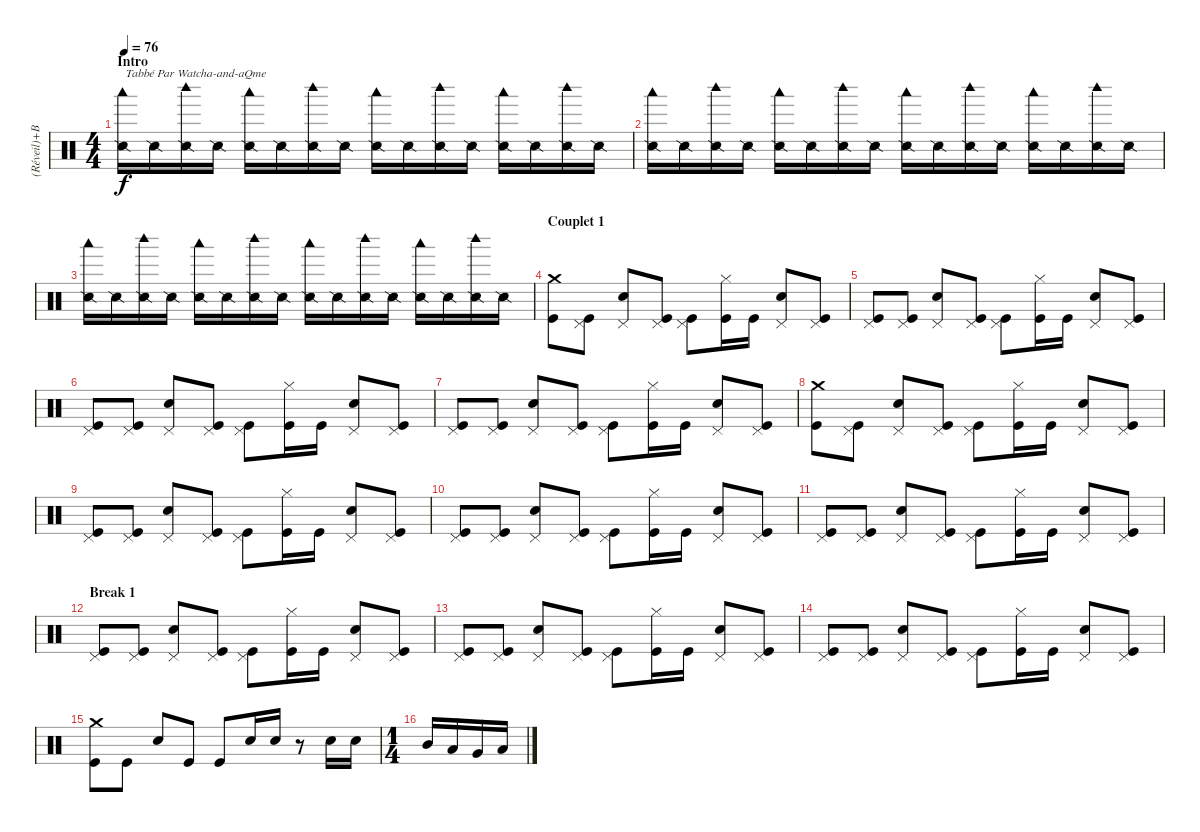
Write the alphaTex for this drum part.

\track ("(Réveil)+Batterie" "(Réveil)+B") {instrument percussion}
\staff {score}
\articulation defaults
\ts (4 4)
\section ("" "Intro")
\tempo 76
\clef neutral
\ks c
("Snare (side stick) 2" "Woodblock low (hit)").16{txt "Tabbé Par Watcha-and-aQme" dy f} "Snare (side stick) 2".16 ("Snare (side stick) 2" "Woodblock high (hit)").16 "Snare (side stick) 2".16 ("Snare (side stick) 2" "Woodblock low (hit)").16 "Snare (side stick) 2".16 ("Snare (side stick) 2" "Woodblock high (hit)").16 "Snare (side stick) 2".16 ("Snare (side stick) 2" "Woodblock low (hit)").16 "Snare (side stick) 2".16 ("Snare (side stick) 2" "Woodblock high (hit)").16 "Snare (side stick) 2".16 ("Snare (side stick) 2" "Woodblock low (hit)").16 "Snare (side stick) 2".16 ("Snare (side stick) 2" "Woodblock high (hit)").16 "Snare (side stick) 2".16 |
("Snare (side stick) 2" "Woodblock low (hit)").16 "Snare (side stick) 2".16 ("Snare (side stick) 2" "Woodblock high (hit)").16 "Snare (side stick) 2".16 ("Snare (side stick) 2" "Woodblock low (hit)").16 "Snare (side stick) 2".16 ("Snare (side stick) 2" "Woodblock high (hit)").16 "Snare (side stick) 2".16 ("Snare (side stick) 2" "Woodblock low (hit)").16 "Snare (side stick) 2".16 ("Snare (side stick) 2" "Woodblock high (hit)").16 "Snare (side stick) 2".16 ("Snare (side stick) 2" "Woodblock low (hit)").16 "Snare (side stick) 2".16 ("Snare (side stick) 2" "Woodblock high (hit)").16 "Snare (side stick) 2".16 |
("Snare (side stick) 2" "Woodblock low (hit)").16 "Snare (side stick) 2".16 ("Snare (side stick) 2" "Woodblock high (hit)").16 "Snare (side stick) 2".16 ("Snare (side stick) 2" "Woodblock low (hit)").16 "Snare (side stick) 2".16 ("Snare (side stick) 2" "Woodblock high (hit)").16 "Snare (side stick) 2".16 ("Snare (side stick) 2" "Woodblock low (hit)").16 "Snare (side stick) 2".16 ("Snare (side stick) 2" "Woodblock high (hit)").16 "Snare (side stick) 2".16 ("Snare (side stick) 2" "Woodblock low (hit)").16 "Snare (side stick) 2".16 ("Snare (side stick) 2" "Woodblock high (hit)").16 "Snare (side stick) 2".16 |
\section ("" "Couplet 1")
("Crash medium (hit)" "Kick (hit)").8{volume 16} ("Pedal Hi-Hat (hit)" "Kick (hit)").8 ("Pedal Hi-Hat (hit)" "Electric Snare (hit)").8 ("Pedal Hi-Hat (hit)" "Kick (hit)").8 ("Pedal Hi-Hat (hit)" "Kick (hit)").8 ("Hi-Hat (closed)" "Kick (hit)").16 "Kick (hit)".16 ("Pedal Hi-Hat (hit)" "Electric Snare (hit)").8 ("Pedal Hi-Hat (hit)" "Kick (hit)").8 |
("Pedal Hi-Hat (hit)" "Kick (hit)").8 ("Pedal Hi-Hat (hit)" "Kick (hit)").8 ("Pedal Hi-Hat (hit)" "Electric Snare (hit)").8 ("Pedal Hi-Hat (hit)" "Kick (hit)").8 ("Pedal Hi-Hat (hit)" "Kick (hit)").8 ("Hi-Hat (closed)" "Kick (hit)").16 "Kick (hit)".16 ("Pedal Hi-Hat (hit)" "Electric Snare (hit)").8 ("Pedal Hi-Hat (hit)" "Kick (hit)").8 |
("Pedal Hi-Hat (hit)" "Kick (hit)").8 ("Pedal Hi-Hat (hit)" "Kick (hit)").8 ("Pedal Hi-Hat (hit)" "Electric Snare (hit)").8 ("Pedal Hi-Hat (hit)" "Kick (hit)").8 ("Pedal Hi-Hat (hit)" "Kick (hit)").8 ("Hi-Hat (closed)" "Kick (hit)").16 "Kick (hit)".16 ("Pedal Hi-Hat (hit)" "Electric Snare (hit)").8 ("Pedal Hi-Hat (hit)" "Kick (hit)").8 |
("Pedal Hi-Hat (hit)" "Kick (hit)").8 ("Pedal Hi-Hat (hit)" "Kick (hit)").8 ("Pedal Hi-Hat (hit)" "Electric Snare (hit)").8 ("Pedal Hi-Hat (hit)" "Kick (hit)").8 ("Pedal Hi-Hat (hit)" "Kick (hit)").8 ("Hi-Hat (closed)" "Kick (hit)").16 "Kick (hit)".16 ("Pedal Hi-Hat (hit)" "Electric Snare (hit)").8 ("Pedal Hi-Hat (hit)" "Kick (hit)").8 |
("Crash medium (hit)" "Kick (hit)").8 ("Pedal Hi-Hat (hit)" "Kick (hit)").8 ("Pedal Hi-Hat (hit)" "Electric Snare (hit)").8 ("Pedal Hi-Hat (hit)" "Kick (hit)").8 ("Pedal Hi-Hat (hit)" "Kick (hit)").8 ("Hi-Hat (closed)" "Kick (hit)").16 "Kick (hit)".16 ("Pedal Hi-Hat (hit)" "Electric Snare (hit)").8 ("Pedal Hi-Hat (hit)" "Kick (hit)").8 |
("Pedal Hi-Hat (hit)" "Kick (hit)").8 ("Pedal Hi-Hat (hit)" "Kick (hit)").8 ("Pedal Hi-Hat (hit)" "Electric Snare (hit)").8 ("Pedal Hi-Hat (hit)" "Kick (hit)").8 ("Pedal Hi-Hat (hit)" "Kick (hit)").8 ("Hi-Hat (closed)" "Kick (hit)").16 "Kick (hit)".16 ("Pedal Hi-Hat (hit)" "Electric Snare (hit)").8 ("Pedal Hi-Hat (hit)" "Kick (hit)").8 |
("Pedal Hi-Hat (hit)" "Kick (hit)").8 ("Pedal Hi-Hat (hit)" "Kick (hit)").8 ("Pedal Hi-Hat (hit)" "Electric Snare (hit)").8 ("Pedal Hi-Hat (hit)" "Kick (hit)").8 ("Pedal Hi-Hat (hit)" "Kick (hit)").8 ("Hi-Hat (closed)" "Kick (hit)").16 "Kick (hit)".16 ("Pedal Hi-Hat (hit)" "Electric Snare (hit)").8 ("Pedal Hi-Hat (hit)" "Kick (hit)").8 |
("Pedal Hi-Hat (hit)" "Kick (hit)").8 ("Pedal Hi-Hat (hit)" "Kick (hit)").8 ("Pedal Hi-Hat (hit)" "Electric Snare (hit)").8 ("Pedal Hi-Hat (hit)" "Kick (hit)").8 ("Pedal Hi-Hat (hit)" "Kick (hit)").8 ("Hi-Hat (closed)" "Kick (hit)").16 "Kick (hit)".16 ("Pedal Hi-Hat (hit)" "Electric Snare (hit)").8 ("Pedal Hi-Hat (hit)" "Kick (hit)").8 |
\section ("" "Break 1")
("Pedal Hi-Hat (hit)" "Kick (hit)").8 ("Pedal Hi-Hat (hit)" "Kick (hit)").8 ("Pedal Hi-Hat (hit)" "Electric Snare (hit)").8 ("Pedal Hi-Hat (hit)" "Kick (hit)").8 ("Pedal Hi-Hat (hit)" "Kick (hit)").8 ("Hi-Hat (closed)" "Kick (hit)").16 "Kick (hit)".16 ("Pedal Hi-Hat (hit)" "Electric Snare (hit)").8 ("Pedal Hi-Hat (hit)" "Kick (hit)").8 |
("Pedal Hi-Hat (hit)" "Kick (hit)").8 ("Pedal Hi-Hat (hit)" "Kick (hit)").8 ("Pedal Hi-Hat (hit)" "Electric Snare (hit)").8 ("Pedal Hi-Hat (hit)" "Kick (hit)").8 ("Pedal Hi-Hat (hit)" "Kick (hit)").8 ("Hi-Hat (closed)" "Kick (hit)").16 "Kick (hit)".16 ("Pedal Hi-Hat (hit)" "Electric Snare (hit)").8 ("Pedal Hi-Hat (hit)" "Kick (hit)").8 |
("Pedal Hi-Hat (hit)" "Kick (hit)").8 ("Pedal Hi-Hat (hit)" "Kick (hit)").8 ("Pedal Hi-Hat (hit)" "Electric Snare (hit)").8 ("Pedal Hi-Hat (hit)" "Kick (hit)").8 ("Pedal Hi-Hat (hit)" "Kick (hit)").8 ("Hi-Hat (closed)" "Kick (hit)").16 "Kick (hit)".16 ("Pedal Hi-Hat (hit)" "Electric Snare (hit)").8 ("Pedal Hi-Hat (hit)" "Kick (hit)").8 |
("Crash medium (hit)" "Kick (hit)").8 "Kick (hit)".8 "Electric Snare (hit)".8 "Kick (hit)".8 "Kick (hit)".8 "Electric Snare (hit)".16 "Electric Snare (hit)".16 r.8 "Electric Snare (hit)".16 "Electric Snare (hit)".16 |
\ts (1 4)
"Mid Tom (hit)".16 "Low Tom (hit)".16 "Very Low Tom (hit)".16 "Low Floor Tom (hit)".16
